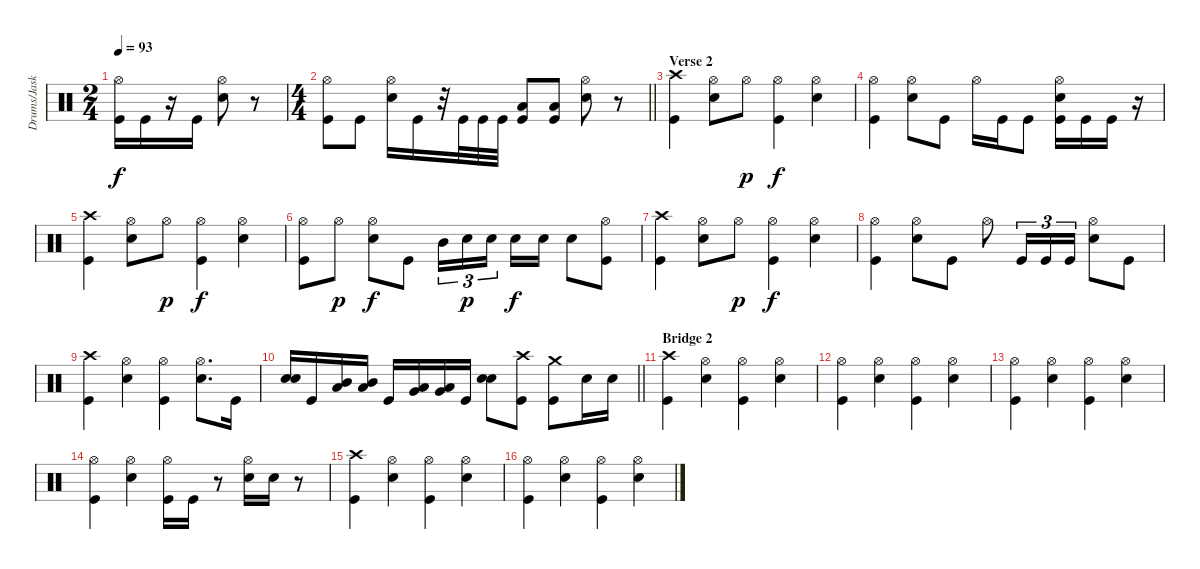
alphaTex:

\track ("Drums/Jaska" "Drums/Jask") {instrument percussion}
\staff {score}
\articulation defaults
\ts (2 4)
\tempo 93
\clef neutral
\ks c
("Hi-Hat (open)" "Kick (hit)").16{dy f} "Kick (hit)".16 r.16 "Kick (hit)".16 ("Hi-Hat (open)" "Electric Snare (hit)").8 r.8 |
\ts (4 4)
\barLineRight lightlight
("Hi-Hat (open)" "Kick (hit)").8 "Kick (hit)".8 ("Hi-Hat (open)" "Electric Snare (hit)").16 "Kick (hit)".16 r.32 "Kick (hit)".32 "Kick (hit)".32 "Kick (hit)".32 ("Low Floor Tom (hit)" "Kick (hit)").8 ("Low Floor Tom (hit)" "Kick (hit)").8 ("Hi-Hat (open)" "Electric Snare (hit)").8 r.8 |
\section ("" "Verse 2")
("Crash high (hit)" "Kick (hit)").4 ("Hi-Hat (open)" "Electric Snare (hit)").8 "Hi-Hat (open)".8{dy p} ("Hi-Hat (open)" "Kick (hit)").4{dy f} ("Hi-Hat (open)" "Electric Snare (hit)").4 |
("Hi-Hat (open)" "Kick (hit)").4 ("Hi-Hat (open)" "Electric Snare (hit)").8 "Kick (hit)".8 "Hi-Hat (open)".16 "Kick (hit)".16 "Kick (hit)".8 ("Hi-Hat (open)" "Electric Snare (hit)" "Kick (hit)").16 "Kick (hit)".16 "Kick (hit)".16 r.16 |
("Crash high (hit)" "Kick (hit)").4 ("Hi-Hat (open)" "Electric Snare (hit)").8 "Hi-Hat (open)".8{dy p} ("Hi-Hat (open)" "Kick (hit)").4{dy f} ("Hi-Hat (open)" "Electric Snare (hit)").4 |
("Hi-Hat (open)" "Kick (hit)").8 "Hi-Hat (open)".8{dy p} ("Hi-Hat (open)" "Electric Snare (hit)").8{dy f} "Kick (hit)".8 "Mid Tom (hit)".16{tu (3 2)} "Electric Snare (hit)".16{tu (3 2) dy p} "Electric Snare (hit)".16{tu (3 2) beam splitsecondary} "Electric Snare (hit)".16{dy f} "Electric Snare (hit)".16 "Electric Snare (hit)".8 ("Hi-Hat (open)" "Kick (hit)").8 |
("Crash high (hit)" "Kick (hit)").4 ("Hi-Hat (open)" "Electric Snare (hit)").8 "Hi-Hat (open)".8{dy p} ("Hi-Hat (open)" "Kick (hit)").4{dy f} ("Hi-Hat (open)" "Electric Snare (hit)").4 |
("Hi-Hat (open)" "Kick (hit)").4 ("Hi-Hat (open)" "Electric Snare (hit)").8 "Kick (hit)".8 "Hi-Hat (open)".8 "Kick (hit)".16{tu (3 2)} "Kick (hit)".16{tu (3 2)} "Kick (hit)".16{tu (3 2)} ("Hi-Hat (open)" "Electric Snare (hit)").8 "Kick (hit)".8 |
("Crash high (hit)" "Kick (hit)").4 ("Hi-Hat (open)" "Electric Snare (hit)").4 ("Hi-Hat (open)" "Kick (hit)").4 ("Hi-Hat (open)" "Electric Snare (hit)").8{d} "Kick (hit)".16 |
\barLineRight lightlight
("Snare (hit) 2" "Electric Snare (hit)").16 "Kick (hit)".16 ("Mid Tom (hit)" "Low Tom (hit)").16 ("Mid Tom (hit)" "Low Tom (hit)").16 "Kick (hit)".16 ("Low Tom (hit)" "Very Low Tom (hit)").16 ("Low Tom (hit)" "Very Low Tom (hit)").16 "Kick (hit)".16 ("Snare (hit) 2" "Electric Snare (hit)").8 ("Crash high (hit)" "Kick (hit)").8 ("Crash medium (hit)" "Kick (hit)").8 "Electric Snare (hit)".16 "Electric Snare (hit)".16 |
\section ("" "Bridge 2")
("Crash high (hit)" "Kick (hit)").4 ("Hi-Hat (open)" "Electric Snare (hit)").4 ("Hi-Hat (open)" "Kick (hit)").4 ("Hi-Hat (open)" "Electric Snare (hit)").4 |
("Hi-Hat (open)" "Kick (hit)").4 ("Hi-Hat (open)" "Electric Snare (hit)").4 ("Hi-Hat (open)" "Kick (hit)").4 ("Hi-Hat (open)" "Electric Snare (hit)").4 |
("Hi-Hat (open)" "Kick (hit)").4 ("Hi-Hat (open)" "Electric Snare (hit)").4 ("Hi-Hat (open)" "Kick (hit)").4 ("Hi-Hat (open)" "Electric Snare (hit)").4 |
("Hi-Hat (open)" "Kick (hit)").4 ("Hi-Hat (open)" "Electric Snare (hit)").4 ("Hi-Hat (open)" "Kick (hit)").16 "Kick (hit)".16 r.8 ("Hi-Hat (open)" "Electric Snare (hit)").16 "Electric Snare (hit)".16 r.8 |
("Crash high (hit)" "Kick (hit)").4 ("Hi-Hat (open)" "Electric Snare (hit)").4 ("Hi-Hat (open)" "Kick (hit)").4 ("Hi-Hat (open)" "Electric Snare (hit)").4 |
("Hi-Hat (open)" "Kick (hit)").4 ("Hi-Hat (open)" "Electric Snare (hit)").4 ("Hi-Hat (open)" "Kick (hit)").4 ("Hi-Hat (open)" "Electric Snare (hit)").4
